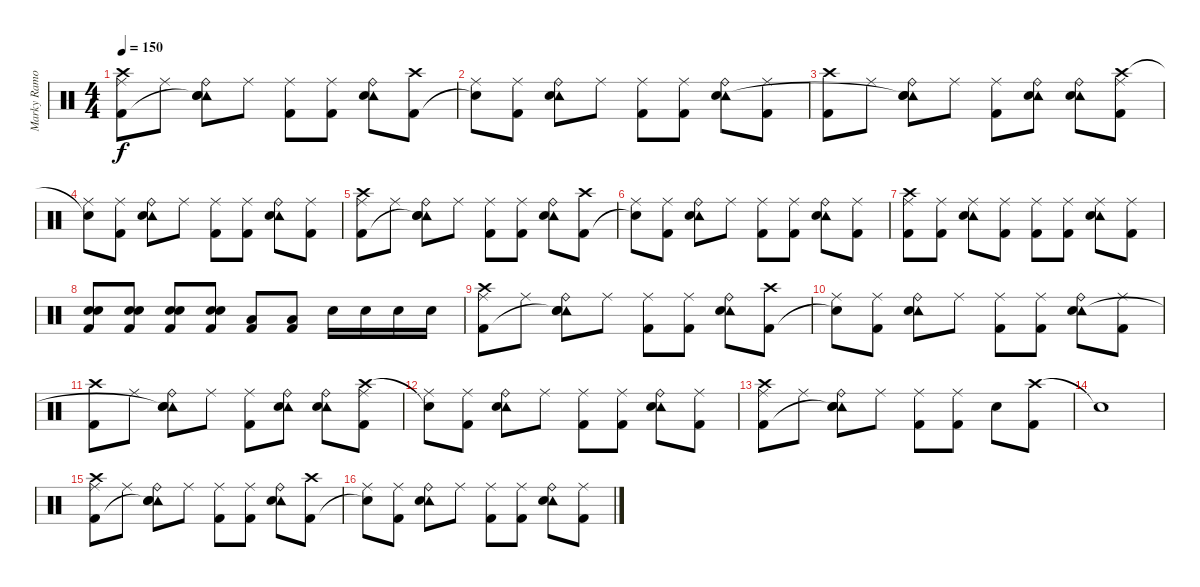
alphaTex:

\track ("Marky Ramone - Drum" "Marky Ramo") {instrument percussion}
\staff {score}
\articulation defaults
\ts (4 4)
\tempo 150
\clef neutral
\ks c
("Ride (middle)" "Crash high (hit)" "Kick (hit) 2").8{dy f} "Ride (middle)".8 ("Ride (bell)" "Tambourine (hit)" "Snare (hit)"{t} "Snare (hit) 2").8 "Ride (middle)".8 ("Ride (middle)" "Kick (hit) 2").8 ("Ride (middle)" "Kick (hit) 2").8 ("Ride (bell)" "Tambourine (hit)" "Snare (hit) 2").8 ("Crash high (hit)" "Kick (hit) 2").8 |
("Ride (middle)" "Snare (hit)"{t}).8 ("Ride (middle)" "Kick (hit) 2").8 ("Ride (bell)" "Tambourine (hit)" "Snare (hit) 2").8 "Ride (middle)".8 ("Ride (middle)" "Kick (hit) 2").8 ("Ride (middle)" "Kick (hit) 2").8 ("Ride (bell)" "Tambourine (hit)" "Snare (hit) 2").8 ("Ride (middle)" "Kick (hit) 2").8 |
("Crash high (hit)" "Kick (hit) 2").8 "Ride (middle)".8 ("Ride (bell)" "Tambourine (hit)" "Snare (hit)"{t} "Snare (hit) 2").8 "Ride (middle)".8 ("Ride (middle)" "Kick (hit) 2").8 ("Ride (bell)" "Tambourine (hit)" "Snare (hit) 2").8 ("Ride (bell)" "Tambourine (hit)" "Snare (hit) 2").8 ("Ride (middle)" "Crash high (hit)" "Kick (hit) 2").8 |
("Ride (middle)" "Snare (hit)"{t}).8 ("Ride (middle)" "Kick (hit) 2").8 ("Ride (bell)" "Tambourine (hit)" "Snare (hit) 2").8 "Ride (middle)".8 ("Ride (middle)" "Kick (hit) 2").8 ("Ride (middle)" "Kick (hit) 2").8 ("Ride (bell)" "Tambourine (hit)" "Snare (hit) 2").8 ("Ride (middle)" "Kick (hit) 2").8 |
("Ride (middle)" "Crash high (hit)" "Kick (hit) 2").8 "Ride (middle)".8 ("Ride (bell)" "Tambourine (hit)" "Snare (hit)"{t} "Snare (hit) 2").8 "Ride (middle)".8 ("Ride (middle)" "Kick (hit) 2").8 ("Ride (middle)" "Kick (hit) 2").8 ("Ride (bell)" "Tambourine (hit)" "Snare (hit) 2").8 ("Crash high (hit)" "Kick (hit) 2").8 |
("Ride (middle)" "Snare (hit)"{t}).8 ("Ride (middle)" "Kick (hit) 2").8 ("Ride (bell)" "Tambourine (hit)" "Snare (hit) 2").8 "Ride (middle)".8 ("Ride (middle)" "Kick (hit) 2").8 ("Ride (middle)" "Kick (hit) 2").8 ("Ride (bell)" "Tambourine (hit)" "Snare (hit) 2").8 ("Ride (middle)" "Kick (hit) 2").8 |
("Ride (middle)" "Crash high (hit)" "Kick (hit) 2").8 ("Ride (middle)" "Kick (hit) 2").8 ("Ride (middle)" "Tambourine (hit)" "Snare (hit) 2").8 ("Ride (middle)" "Kick (hit) 2").8 ("Ride (middle)" "Kick (hit) 2").8 ("Ride (middle)" "Kick (hit) 2").8 ("Ride (middle)" "Tambourine (hit)" "Snare (hit) 2").8 ("Ride (middle)" "Kick (hit) 2").8 |
("Electric Snare (hit)" "Snare (hit) 2" "Kick (hit) 2").8 ("Electric Snare (hit)" "Snare (hit) 2" "Kick (hit) 2").8 ("Electric Snare (hit)" "Snare (hit) 2" "Kick (hit) 2").8 ("Electric Snare (hit)" "Snare (hit) 2" "Kick (hit) 2").8 ("Low Tom (hit)" "Kick (hit) 2").8 ("Low Tom (hit)" "Kick (hit) 2").8 "Snare (hit) 2".16 "Snare (hit) 2".16 "Snare (hit) 2".16 "Snare (hit) 2".16 |
("Ride (middle)" "Crash high (hit)" "Kick (hit) 2").8 "Ride (middle)".8 ("Ride (bell)" "Tambourine (hit)" "Snare (hit)"{t} "Snare (hit) 2").8 "Ride (middle)".8 ("Ride (middle)" "Kick (hit) 2").8 ("Ride (middle)" "Kick (hit) 2").8 ("Ride (bell)" "Tambourine (hit)" "Snare (hit) 2").8 ("Crash high (hit)" "Kick (hit) 2").8 |
("Ride (middle)" "Snare (hit)"{t}).8 ("Ride (middle)" "Kick (hit) 2").8 ("Ride (bell)" "Tambourine (hit)" "Snare (hit) 2").8 "Ride (middle)".8 ("Ride (middle)" "Kick (hit) 2").8 ("Ride (middle)" "Kick (hit) 2").8 ("Ride (bell)" "Tambourine (hit)" "Snare (hit) 2").8 ("Ride (middle)" "Kick (hit) 2").8 |
("Crash high (hit)" "Kick (hit) 2").8 "Ride (middle)".8 ("Ride (bell)" "Tambourine (hit)" "Snare (hit)"{t} "Snare (hit) 2").8 "Ride (middle)".8 ("Ride (middle)" "Kick (hit) 2").8 ("Ride (bell)" "Tambourine (hit)" "Snare (hit) 2").8 ("Ride (bell)" "Tambourine (hit)" "Snare (hit) 2").8 ("Ride (middle)" "Crash high (hit)" "Kick (hit) 2").8 |
("Ride (middle)" "Snare (hit)"{t}).8 ("Ride (middle)" "Kick (hit) 2").8 ("Ride (bell)" "Tambourine (hit)" "Snare (hit) 2").8 "Ride (middle)".8 ("Ride (middle)" "Kick (hit) 2").8 ("Ride (middle)" "Kick (hit) 2").8 ("Ride (bell)" "Tambourine (hit)" "Snare (hit) 2").8 ("Ride (middle)" "Kick (hit) 2").8 |
("Ride (middle)" "Crash high (hit)" "Kick (hit) 2").8 "Ride (middle)".8 ("Ride (bell)" "Tambourine (hit)" "Snare (hit)"{t} "Snare (hit) 2").8 "Ride (middle)".8 ("Ride (middle)" "Kick (hit) 2").8 ("Ride (middle)" "Kick (hit) 2").8 "Snare (hit) 2".8 ("Crash high (hit)" "Kick (hit) 2").8 |
"Snare (hit)"{t}.1 |
("Ride (middle)" "Crash high (hit)" "Kick (hit) 2").8 "Ride (middle)".8 ("Ride (bell)" "Tambourine (hit)" "Snare (hit)"{t} "Snare (hit) 2").8 "Ride (middle)".8 ("Ride (middle)" "Kick (hit) 2").8 ("Ride (middle)" "Kick (hit) 2").8 ("Ride (bell)" "Tambourine (hit)" "Snare (hit) 2").8 ("Crash high (hit)" "Kick (hit) 2").8 |
("Ride (middle)" "Snare (hit)"{t}).8 ("Ride (middle)" "Kick (hit) 2").8 ("Ride (bell)" "Tambourine (hit)" "Snare (hit) 2").8 "Ride (middle)".8 ("Ride (middle)" "Kick (hit) 2").8 ("Ride (middle)" "Kick (hit) 2").8 ("Ride (bell)" "Tambourine (hit)" "Snare (hit) 2").8 ("Ride (middle)" "Kick (hit) 2").8
